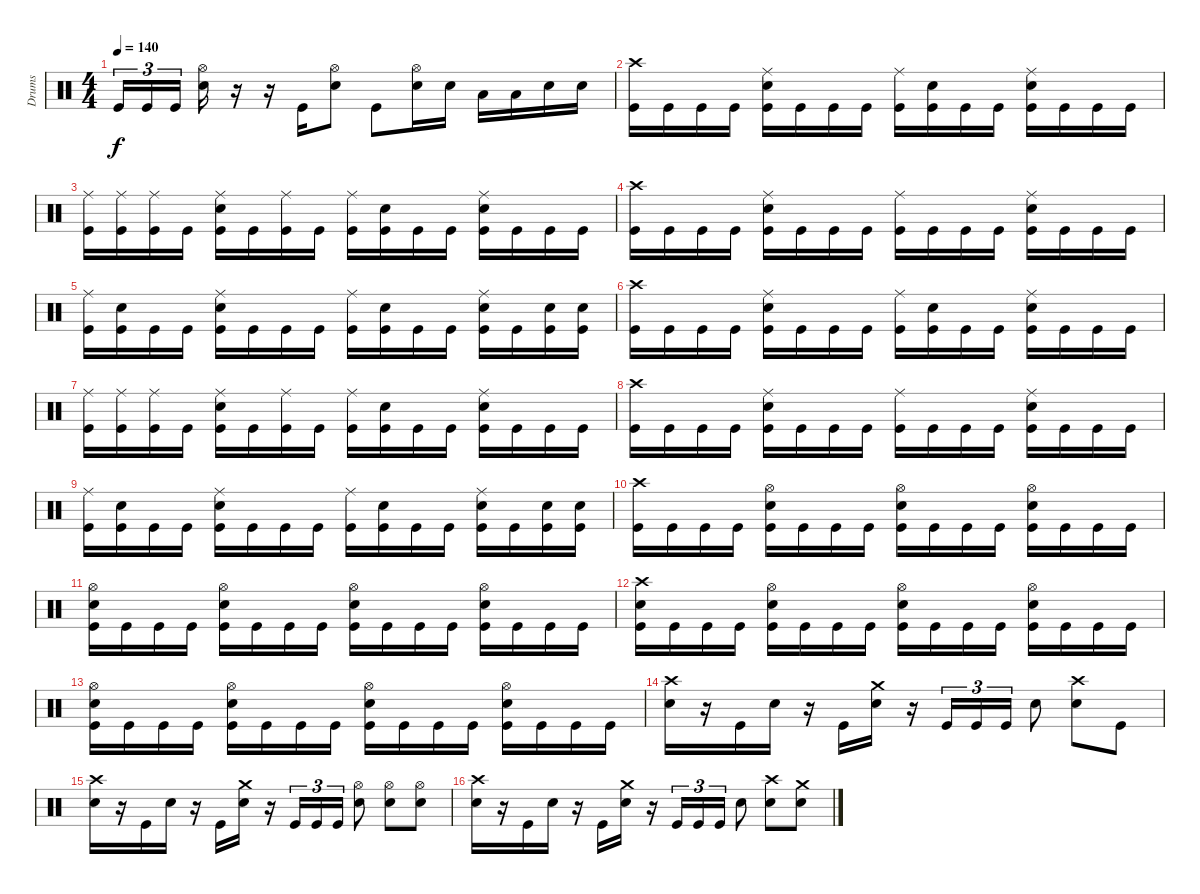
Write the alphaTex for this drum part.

\track ("Drums" "Drums") {instrument percussion}
\staff {score}
\articulation defaults
\ts (4 4)
\tempo 140
\clef neutral
\ks c "Kick (hit)".16{tu (3 2) dy f} "Kick (hit)".16{tu (3 2)} "Kick (hit)".16{tu (3 2)}
("Snare (hit) 2" "Hi-Hat (open)").16 r.16 r.16 "Kick (hit)".16 ("Snare (hit) 2" "Hi-Hat (open)").8 "Kick (hit)".8 ("Snare (hit) 2" "Hi-Hat (open)").16 "Snare (hit) 2".16 "Low Tom (hit)".16 "Low Tom (hit)".16 "Snare (hit) 2".16 "Snare (hit) 2".16 |
("Kick (hit)" "Crash high (hit)").16 "Kick (hit)".16 "Kick (hit)".16 "Kick (hit)".16 ("Kick (hit)" "Snare (hit) 2" "Ride (middle)").16 "Kick (hit)".16 "Kick (hit)".16 "Kick (hit)".16 ("Kick (hit)" "Ride (middle)").16 ("Kick (hit)" "Snare (hit) 2").16 "Kick (hit)".16 "Kick (hit)".16 ("Kick (hit)" "Snare (hit) 2" "Ride (middle)").16 "Kick (hit)".16 "Kick (hit)".16 "Kick (hit)".16 |
("Kick (hit)" "Ride (middle)").16 ("Kick (hit)" "Ride (middle)").16 ("Kick (hit)" "Ride (middle)").16 "Kick (hit)".16 ("Kick (hit)" "Snare (hit) 2" "Ride (middle)").16 "Kick (hit)".16 ("Kick (hit)" "Ride (middle)").16 "Kick (hit)".16 ("Kick (hit)" "Ride (middle)").16 ("Kick (hit)" "Snare (hit) 2").16 "Kick (hit)".16 "Kick (hit)".16 ("Kick (hit)" "Snare (hit) 2" "Ride (middle)").16 "Kick (hit)".16 "Kick (hit)".16 "Kick (hit)".16 |
("Kick (hit)" "Crash high (hit)").16 "Kick (hit)".16 "Kick (hit)".16 "Kick (hit)".16 ("Kick (hit)" "Snare (hit) 2" "Ride (middle)").16 "Kick (hit)".16 "Kick (hit)".16 "Kick (hit)".16 ("Kick (hit)" "Ride (middle)").16 "Kick (hit)".16 "Kick (hit)".16 "Kick (hit)".16 ("Kick (hit)" "Snare (hit) 2" "Ride (middle)").16 "Kick (hit)".16 "Kick (hit)".16 "Kick (hit)".16 |
("Kick (hit)" "Ride (middle)").16 ("Kick (hit)" "Snare (hit) 2").16 "Kick (hit)".16 "Kick (hit)".16 ("Kick (hit)" "Snare (hit) 2" "Ride (middle)").16 "Kick (hit)".16 "Kick (hit)".16 "Kick (hit)".16 ("Kick (hit)" "Ride (middle)").16 ("Kick (hit)" "Snare (hit) 2").16 "Kick (hit)".16 "Kick (hit)".16 ("Kick (hit)" "Snare (hit) 2" "Ride (middle)").16 "Kick (hit)".16 ("Kick (hit)" "Snare (hit) 2").16 ("Kick (hit)" "Snare (hit) 2").16 |
("Kick (hit)" "Crash high (hit)").16 "Kick (hit)".16 "Kick (hit)".16 "Kick (hit)".16 ("Kick (hit)" "Snare (hit) 2" "Ride (middle)").16 "Kick (hit)".16 "Kick (hit)".16 "Kick (hit)".16 ("Kick (hit)" "Ride (middle)").16 ("Kick (hit)" "Snare (hit) 2").16 "Kick (hit)".16 "Kick (hit)".16 ("Kick (hit)" "Snare (hit) 2" "Ride (middle)").16 "Kick (hit)".16 "Kick (hit)".16 "Kick (hit)".16 |
("Kick (hit)" "Ride (middle)").16 ("Kick (hit)" "Ride (middle)").16 ("Kick (hit)" "Ride (middle)").16 "Kick (hit)".16 ("Kick (hit)" "Snare (hit) 2" "Ride (middle)").16 "Kick (hit)".16 ("Kick (hit)" "Ride (middle)").16 "Kick (hit)".16 ("Kick (hit)" "Ride (middle)").16 ("Kick (hit)" "Snare (hit) 2").16 "Kick (hit)".16 "Kick (hit)".16 ("Kick (hit)" "Snare (hit) 2" "Ride (middle)").16 "Kick (hit)".16 "Kick (hit)".16 "Kick (hit)".16 |
("Kick (hit)" "Crash high (hit)").16 "Kick (hit)".16 "Kick (hit)".16 "Kick (hit)".16 ("Kick (hit)" "Snare (hit) 2" "Ride (middle)").16 "Kick (hit)".16 "Kick (hit)".16 "Kick (hit)".16 ("Kick (hit)" "Ride (middle)").16 "Kick (hit)".16 "Kick (hit)".16 "Kick (hit)".16 ("Kick (hit)" "Snare (hit) 2" "Ride (middle)").16 "Kick (hit)".16 "Kick (hit)".16 "Kick (hit)".16 |
("Kick (hit)" "Ride (middle)").16 ("Kick (hit)" "Snare (hit) 2").16 "Kick (hit)".16 "Kick (hit)".16 ("Kick (hit)" "Snare (hit) 2" "Ride (middle)").16 "Kick (hit)".16 "Kick (hit)".16 "Kick (hit)".16 ("Kick (hit)" "Ride (middle)").16 ("Kick (hit)" "Snare (hit) 2").16 "Kick (hit)".16 "Kick (hit)".16 ("Kick (hit)" "Snare (hit) 2" "Ride (middle)").16 "Kick (hit)".16 ("Kick (hit)" "Snare (hit) 2").16 ("Kick (hit)" "Snare (hit) 2").16 |
("Kick (hit)" "Crash high (hit)").16 "Kick (hit)".16 "Kick (hit)".16 "Kick (hit)".16 ("Kick (hit)" "Snare (hit) 2" "Hi-Hat (open)").16 "Kick (hit)".16 "Kick (hit)".16 "Kick (hit)".16 ("Kick (hit)" "Snare (hit) 2" "Hi-Hat (open)").16 "Kick (hit)".16 "Kick (hit)".16 "Kick (hit)".16 ("Kick (hit)" "Snare (hit) 2" "Hi-Hat (open)").16 "Kick (hit)".16 "Kick (hit)".16 "Kick (hit)".16 |
("Kick (hit)" "Snare (hit) 2" "Hi-Hat (open)").16 "Kick (hit)".16 "Kick (hit)".16 "Kick (hit)".16 ("Kick (hit)" "Snare (hit) 2" "Hi-Hat (open)").16 "Kick (hit)".16 "Kick (hit)".16 "Kick (hit)".16 ("Kick (hit)" "Snare (hit) 2" "Hi-Hat (open)").16 "Kick (hit)".16 "Kick (hit)".16 "Kick (hit)".16 ("Kick (hit)" "Snare (hit) 2" "Hi-Hat (open)").16 "Kick (hit)".16 "Kick (hit)".16 "Kick (hit)".16 |
("Kick (hit)" "Snare (hit) 2" "Crash high (hit)").16 "Kick (hit)".16 "Kick (hit)".16 "Kick (hit)".16 ("Kick (hit)" "Snare (hit) 2" "Hi-Hat (open)").16 "Kick (hit)".16 "Kick (hit)".16 "Kick (hit)".16 ("Kick (hit)" "Snare (hit) 2" "Hi-Hat (open)").16 "Kick (hit)".16 "Kick (hit)".16 "Kick (hit)".16 ("Kick (hit)" "Snare (hit) 2" "Hi-Hat (open)").16 "Kick (hit)".16 "Kick (hit)".16 "Kick (hit)".16 |
("Kick (hit)" "Snare (hit) 2" "Hi-Hat (open)").16 "Kick (hit)".16 "Kick (hit)".16 "Kick (hit)".16 ("Kick (hit)" "Snare (hit) 2" "Hi-Hat (open)").16 "Kick (hit)".16 "Kick (hit)".16 "Kick (hit)".16 ("Kick (hit)" "Snare (hit) 2" "Hi-Hat (open)").16 "Kick (hit)".16 "Kick (hit)".16 "Kick (hit)".16 ("Kick (hit)" "Snare (hit) 2" "Hi-Hat (open)").16 "Kick (hit)".16 "Kick (hit)".16 "Kick (hit)".16 |
("Snare (hit) 2" "Crash high (hit)").16 r.16 "Kick (hit)".16 "Snare (hit) 2".16 r.16 "Kick (hit)".16 ("Snare (hit) 2" "Crash medium (hit)").16 r.16 "Kick (hit)".16{tu (3 2)} "Kick (hit)".16{tu (3 2)} "Kick (hit)".16{tu (3 2)} "Snare (hit) 2".8 ("Snare (hit) 2" "Crash high (hit)").8 "Kick (hit)".8 |
("Snare (hit) 2" "Crash high (hit)").16 r.16 "Kick (hit)".16 "Snare (hit) 2".16 r.16 "Kick (hit)".16 ("Snare (hit) 2" "Crash medium (hit)").16 r.16 "Kick (hit)".16{tu (3 2)} "Kick (hit)".16{tu (3 2)} "Kick (hit)".16{tu (3 2)} ("Snare (hit) 2" "Hi-Hat (open)").8 ("Snare (hit) 2" "Hi-Hat (open)").8 ("Snare (hit) 2" "Hi-Hat (open)").8 |
("Snare (hit) 2" "Crash high (hit)").16 r.16 "Kick (hit)".16 "Snare (hit) 2".16 r.16 "Kick (hit)".16 ("Snare (hit) 2" "Crash medium (hit)").16 r.16 "Kick (hit)".16{tu (3 2)} "Kick (hit)".16{tu (3 2)} "Kick (hit)".16{tu (3 2)} "Snare (hit) 2".8 ("Snare (hit) 2" "Crash high (hit)").8 ("Snare (hit) 2" "Crash medium (hit)").8
